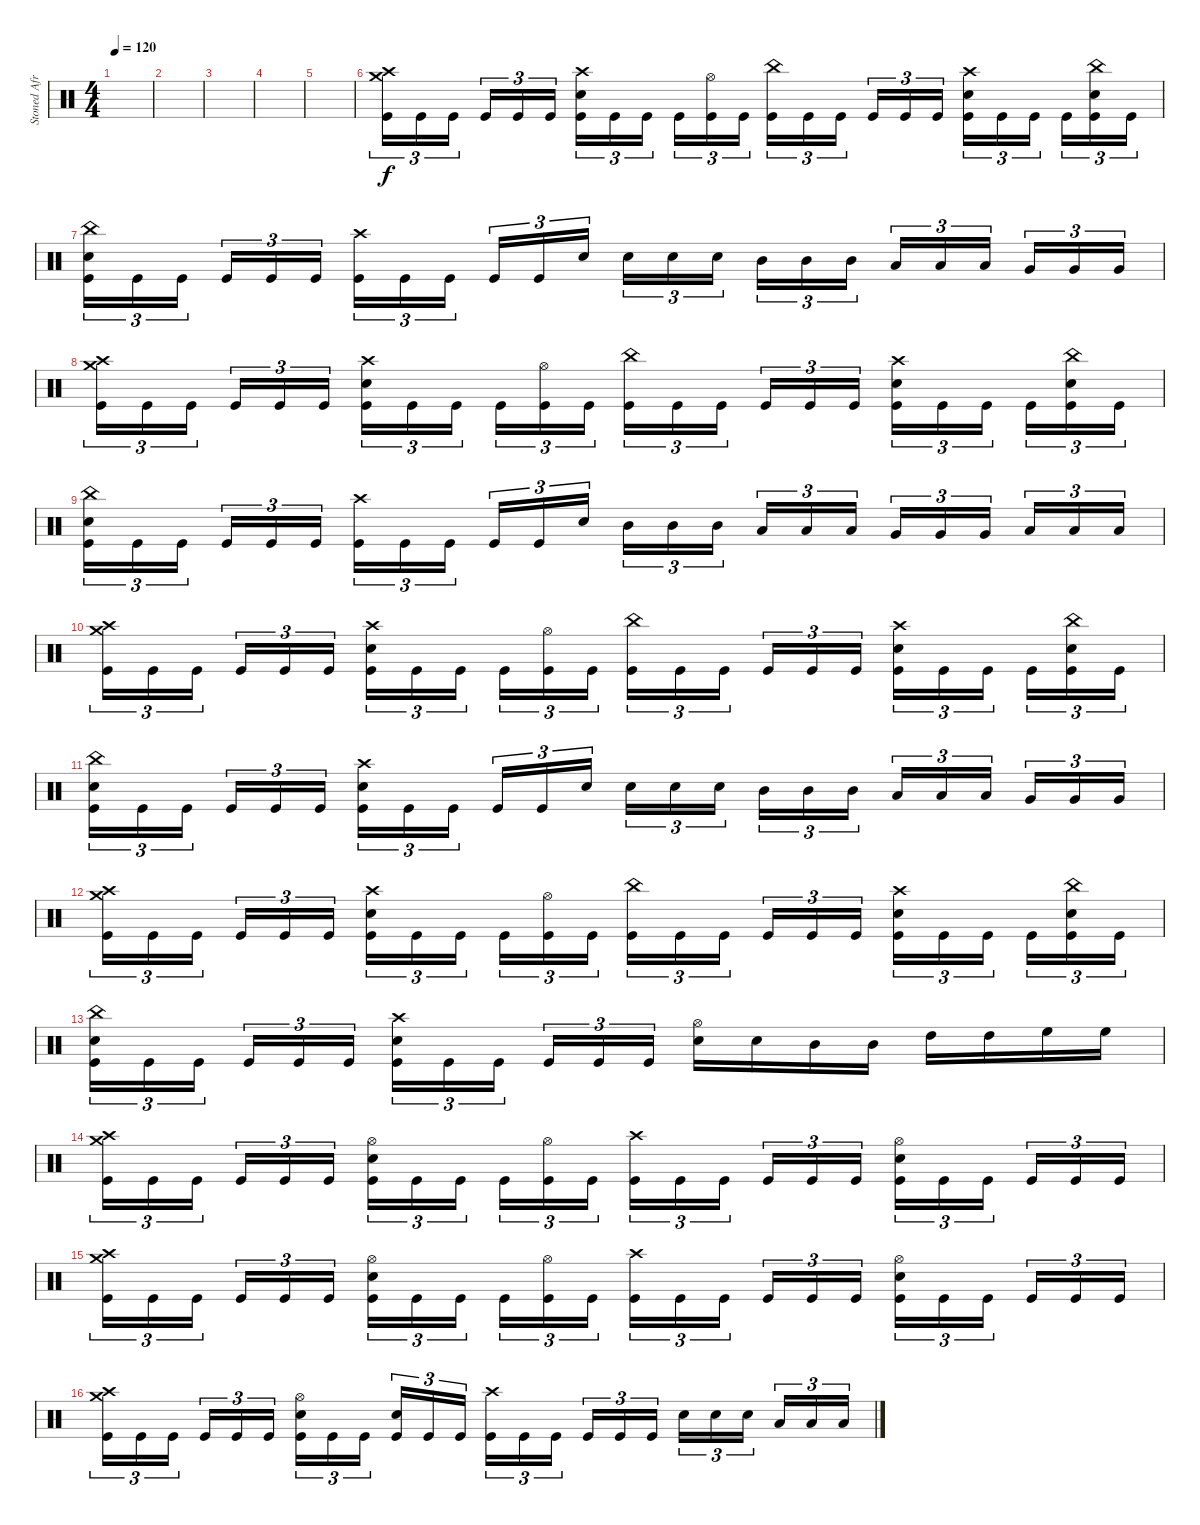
\track ("Stoned Afro Drummer" "Stoned Afr") {instrument percussion}
\staff {score}
\articulation defaults
\ts (4 4)
\tempo 120
\clef neutral
\ks c
|
|
|
|
|
("Crash high (hit)" "Crash medium (hit)" "Kick (hit)").16{tu (3 2) dy f} "Kick (hit)".16{tu (3 2)} "Kick (hit)".16{tu (3 2)} "Kick (hit)".16{tu (3 2)} "Kick (hit)".16{tu (3 2)} "Kick (hit)".16{tu (3 2)} ("Crash high (hit)" "Snare (hit) 2" "Kick (hit)").16{tu (3 2)} "Kick (hit)".16{tu (3 2)} "Kick (hit)".16{tu (3 2)} "Kick (hit)".16{tu (3 2)} ("Hi-Hat (open)" "Kick (hit)").16{tu (3 2)} "Kick (hit)".16{tu (3 2)} ("China (hit)" "Kick (hit)").16{tu (3 2)} "Kick (hit)".16{tu (3 2)} "Kick (hit)".16{tu (3 2)} "Kick (hit)".16{tu (3 2)} "Kick (hit)".16{tu (3 2)} "Kick (hit)".16{tu (3 2)} ("Crash high (hit)" "Snare (hit) 2" "Kick (hit)").16{tu (3 2)} "Kick (hit)".16{tu (3 2)} "Kick (hit)".16{tu (3 2)} "Kick (hit)".16{tu (3 2)} ("China (hit)" "Snare (hit) 2" "Kick (hit)").16{tu (3 2)} "Kick (hit)".16{tu (3 2)} |
("China (hit)" "Snare (hit) 2" "Kick (hit)").16{tu (3 2)} "Kick (hit)".16{tu (3 2)} "Kick (hit)".16{tu (3 2)} "Kick (hit)".16{tu (3 2)} "Kick (hit)".16{tu (3 2)} "Kick (hit)".16{tu (3 2)} ("Crash high (hit)" "Kick (hit)").16{tu (3 2)} "Kick (hit)".16{tu (3 2)} "Kick (hit)".16{tu (3 2)} "Kick (hit)".16{tu (3 2)} "Kick (hit)".16{tu (3 2)} "Snare (hit) 2".16{tu (3 2)} "Snare (hit) 2".16{tu (3 2)} "Snare (hit) 2".16{tu (3 2)} "Snare (hit) 2".16{tu (3 2)} "Mid Tom (hit)".16{tu (3 2)} "Mid Tom (hit)".16{tu (3 2)} "Mid Tom (hit)".16{tu (3 2)} "Low Tom (hit)".16{tu (3 2)} "Low Tom (hit)".16{tu (3 2)} "Low Tom (hit)".16{tu (3 2)} "Very Low Tom (hit)".16{tu (3 2)} "Very Low Tom (hit)".16{tu (3 2)} "Very Low Tom (hit)".16{tu (3 2)} |
("Crash high (hit)" "Crash medium (hit)" "Kick (hit)").16{tu (3 2)} "Kick (hit)".16{tu (3 2)} "Kick (hit)".16{tu (3 2)} "Kick (hit)".16{tu (3 2)} "Kick (hit)".16{tu (3 2)} "Kick (hit)".16{tu (3 2)} ("Crash high (hit)" "Snare (hit) 2" "Kick (hit)").16{tu (3 2)} "Kick (hit)".16{tu (3 2)} "Kick (hit)".16{tu (3 2)} "Kick (hit)".16{tu (3 2)} ("Hi-Hat (open)" "Kick (hit)").16{tu (3 2)} "Kick (hit)".16{tu (3 2)} ("China (hit)" "Kick (hit)").16{tu (3 2)} "Kick (hit)".16{tu (3 2)} "Kick (hit)".16{tu (3 2)} "Kick (hit)".16{tu (3 2)} "Kick (hit)".16{tu (3 2)} "Kick (hit)".16{tu (3 2)} ("Crash high (hit)" "Snare (hit) 2" "Kick (hit)").16{tu (3 2)} "Kick (hit)".16{tu (3 2)} "Kick (hit)".16{tu (3 2)} "Kick (hit)".16{tu (3 2)} ("China (hit)" "Snare (hit) 2" "Kick (hit)").16{tu (3 2)} "Kick (hit)".16{tu (3 2)} |
("China (hit)" "Snare (hit) 2" "Kick (hit)").16{tu (3 2)} "Kick (hit)".16{tu (3 2)} "Kick (hit)".16{tu (3 2)} "Kick (hit)".16{tu (3 2)} "Kick (hit)".16{tu (3 2)} "Kick (hit)".16{tu (3 2)} ("Crash high (hit)" "Kick (hit)").16{tu (3 2)} "Kick (hit)".16{tu (3 2)} "Kick (hit)".16{tu (3 2)} "Kick (hit)".16{tu (3 2)} "Kick (hit)".16{tu (3 2)} "Snare (hit) 2".16{tu (3 2)} "Mid Tom (hit)".16{tu (3 2)} "Mid Tom (hit)".16{tu (3 2)} "Mid Tom (hit)".16{tu (3 2)} "Low Floor Tom (hit)".16{tu (3 2)} "Low Floor Tom (hit)".16{tu (3 2)} "Low Floor Tom (hit)".16{tu (3 2)} "Very Low Tom (hit)".16{tu (3 2)} "Very Low Tom (hit)".16{tu (3 2)} "Very Low Tom (hit)".16{tu (3 2)} "Low Floor Tom (hit)".16{tu (3 2)} "Low Floor Tom (hit)".16{tu (3 2)} "Low Floor Tom (hit)".16{tu (3 2)} |
("Crash high (hit)" "Crash medium (hit)" "Kick (hit)").16{tu (3 2)} "Kick (hit)".16{tu (3 2)} "Kick (hit)".16{tu (3 2)} "Kick (hit)".16{tu (3 2)} "Kick (hit)".16{tu (3 2)} "Kick (hit)".16{tu (3 2)} ("Crash high (hit)" "Snare (hit) 2" "Kick (hit)").16{tu (3 2)} "Kick (hit)".16{tu (3 2)} "Kick (hit)".16{tu (3 2)} "Kick (hit)".16{tu (3 2)} ("Hi-Hat (open)" "Kick (hit)").16{tu (3 2)} "Kick (hit)".16{tu (3 2)} ("China (hit)" "Kick (hit)").16{tu (3 2)} "Kick (hit)".16{tu (3 2)} "Kick (hit)".16{tu (3 2)} "Kick (hit)".16{tu (3 2)} "Kick (hit)".16{tu (3 2)} "Kick (hit)".16{tu (3 2)} ("Crash high (hit)" "Snare (hit) 2" "Kick (hit)").16{tu (3 2)} "Kick (hit)".16{tu (3 2)} "Kick (hit)".16{tu (3 2)} "Kick (hit)".16{tu (3 2)} ("China (hit)" "Snare (hit) 2" "Kick (hit)").16{tu (3 2)} "Kick (hit)".16{tu (3 2)} |
("China (hit)" "Snare (hit) 2" "Kick (hit)").16{tu (3 2)} "Kick (hit)".16{tu (3 2)} "Kick (hit)".16{tu (3 2)} "Kick (hit)".16{tu (3 2)} "Kick (hit)".16{tu (3 2)} "Kick (hit)".16{tu (3 2)} ("Crash high (hit)" "Snare (hit) 2" "Kick (hit)").16{tu (3 2)} "Kick (hit)".16{tu (3 2)} "Kick (hit)".16{tu (3 2)} "Kick (hit)".16{tu (3 2)} "Kick (hit)".16{tu (3 2)} "Snare (hit) 2".16{tu (3 2)} "Snare (hit) 2".16{tu (3 2)} "Snare (hit) 2".16{tu (3 2)} "Snare (hit) 2".16{tu (3 2)} "Mid Tom (hit)".16{tu (3 2)} "Mid Tom (hit)".16{tu (3 2)} "Mid Tom (hit)".16{tu (3 2)} "Low Tom (hit)".16{tu (3 2)} "Low Tom (hit)".16{tu (3 2)} "Low Tom (hit)".16{tu (3 2)} "Very Low Tom (hit)".16{tu (3 2)} "Very Low Tom (hit)".16{tu (3 2)} "Very Low Tom (hit)".16{tu (3 2)} |
("Crash high (hit)" "Crash medium (hit)" "Kick (hit)").16{tu (3 2)} "Kick (hit)".16{tu (3 2)} "Kick (hit)".16{tu (3 2)} "Kick (hit)".16{tu (3 2)} "Kick (hit)".16{tu (3 2)} "Kick (hit)".16{tu (3 2)} ("Crash high (hit)" "Snare (hit) 2" "Kick (hit)").16{tu (3 2)} "Kick (hit)".16{tu (3 2)} "Kick (hit)".16{tu (3 2)} "Kick (hit)".16{tu (3 2)} ("Hi-Hat (open)" "Kick (hit)").16{tu (3 2)} "Kick (hit)".16{tu (3 2)} ("China (hit)" "Kick (hit)").16{tu (3 2)} "Kick (hit)".16{tu (3 2)} "Kick (hit)".16{tu (3 2)} "Kick (hit)".16{tu (3 2)} "Kick (hit)".16{tu (3 2)} "Kick (hit)".16{tu (3 2)} ("Crash high (hit)" "Snare (hit) 2" "Kick (hit)").16{tu (3 2)} "Kick (hit)".16{tu (3 2)} "Kick (hit)".16{tu (3 2)} "Kick (hit)".16{tu (3 2)} ("China (hit)" "Snare (hit) 2" "Kick (hit)").16{tu (3 2)} "Kick (hit)".16{tu (3 2)} |
("China (hit)" "Snare (hit) 2" "Kick (hit)").16{tu (3 2)} "Kick (hit)".16{tu (3 2)} "Kick (hit)".16{tu (3 2)} "Kick (hit)".16{tu (3 2)} "Kick (hit)".16{tu (3 2)} "Kick (hit)".16{tu (3 2)} ("Crash high (hit)" "Snare (hit) 2" "Kick (hit)").16{tu (3 2)} "Kick (hit)".16{tu (3 2)} "Kick (hit)".16{tu (3 2)} "Kick (hit)".16{tu (3 2)} "Kick (hit)".16{tu (3 2)} "Kick (hit)".16{tu (3 2)} ("Hi-Hat (open)" "Snare (hit) 2").16 "Snare (hit) 2".16 "Mid Tom (hit)".16 "Mid Tom (hit)".16 "High Tom (hit)".16 "High Tom (hit)".16 "High Floor Tom (hit)".16 "High Floor Tom (hit)".16 |
("Crash high (hit)" "Crash medium (hit)" "Kick (hit)").16{tu (3 2)} "Kick (hit)".16{tu (3 2)} "Kick (hit)".16{tu (3 2)} "Kick (hit)".16{tu (3 2)} "Kick (hit)".16{tu (3 2)} "Kick (hit)".16{tu (3 2)} ("Hi-Hat (open)" "Snare (hit) 2" "Kick (hit)").16{tu (3 2)} "Kick (hit)".16{tu (3 2)} "Kick (hit)".16{tu (3 2)} "Kick (hit)".16{tu (3 2)} ("Hi-Hat (open)" "Kick (hit)").16{tu (3 2)} "Kick (hit)".16{tu (3 2)} ("Crash high (hit)" "Kick (hit)").16{tu (3 2)} "Kick (hit)".16{tu (3 2)} "Kick (hit)".16{tu (3 2)} "Kick (hit)".16{tu (3 2)} "Kick (hit)".16{tu (3 2)} "Kick (hit)".16{tu (3 2)} ("Hi-Hat (open)" "Snare (hit) 2" "Kick (hit)").16{tu (3 2)} "Kick (hit)".16{tu (3 2)} "Kick (hit)".16{tu (3 2)} "Kick (hit)".16{tu (3 2)} "Kick (hit)".16{tu (3 2)} "Kick (hit)".16{tu (3 2)} |
("Crash high (hit)" "Crash medium (hit)" "Kick (hit)").16{tu (3 2)} "Kick (hit)".16{tu (3 2)} "Kick (hit)".16{tu (3 2)} "Kick (hit)".16{tu (3 2)} "Kick (hit)".16{tu (3 2)} "Kick (hit)".16{tu (3 2)} ("Hi-Hat (open)" "Snare (hit) 2" "Kick (hit)").16{tu (3 2)} "Kick (hit)".16{tu (3 2)} "Kick (hit)".16{tu (3 2)} "Kick (hit)".16{tu (3 2)} ("Hi-Hat (open)" "Kick (hit)").16{tu (3 2)} "Kick (hit)".16{tu (3 2)} ("Crash high (hit)" "Kick (hit)").16{tu (3 2)} "Kick (hit)".16{tu (3 2)} "Kick (hit)".16{tu (3 2)} "Kick (hit)".16{tu (3 2)} "Kick (hit)".16{tu (3 2)} "Kick (hit)".16{tu (3 2)} ("Hi-Hat (open)" "Snare (hit) 2" "Kick (hit)").16{tu (3 2)} "Kick (hit)".16{tu (3 2)} "Kick (hit)".16{tu (3 2)} "Kick (hit)".16{tu (3 2)} "Kick (hit)".16{tu (3 2)} "Kick (hit)".16{tu (3 2)} |
("Crash high (hit)" "Crash medium (hit)" "Kick (hit)").16{tu (3 2)} "Kick (hit)".16{tu (3 2)} "Kick (hit)".16{tu (3 2)} "Kick (hit)".16{tu (3 2)} "Kick (hit)".16{tu (3 2)} "Kick (hit)".16{tu (3 2)} ("Hi-Hat (open)" "Snare (hit) 2" "Kick (hit)").16{tu (3 2)} "Kick (hit)".16{tu (3 2)} "Kick (hit)".16{tu (3 2)} ("Snare (hit) 2" "Kick (hit)").16{tu (3 2)} "Kick (hit)".16{tu (3 2)} "Kick (hit)".16{tu (3 2)} ("Crash high (hit)" "Kick (hit)").16{tu (3 2)} "Kick (hit)".16{tu (3 2)} "Kick (hit)".16{tu (3 2)} "Kick (hit)".16{tu (3 2)} "Kick (hit)".16{tu (3 2)} "Kick (hit)".16{tu (3 2)} "Snare (hit) 2".16{tu (3 2)} "Snare (hit) 2".16{tu (3 2)} "Snare (hit) 2".16{tu (3 2)} "Low Tom (hit)".16{tu (3 2)} "Low Tom (hit)".16{tu (3 2)} "Low Tom (hit)".16{tu (3 2)}
